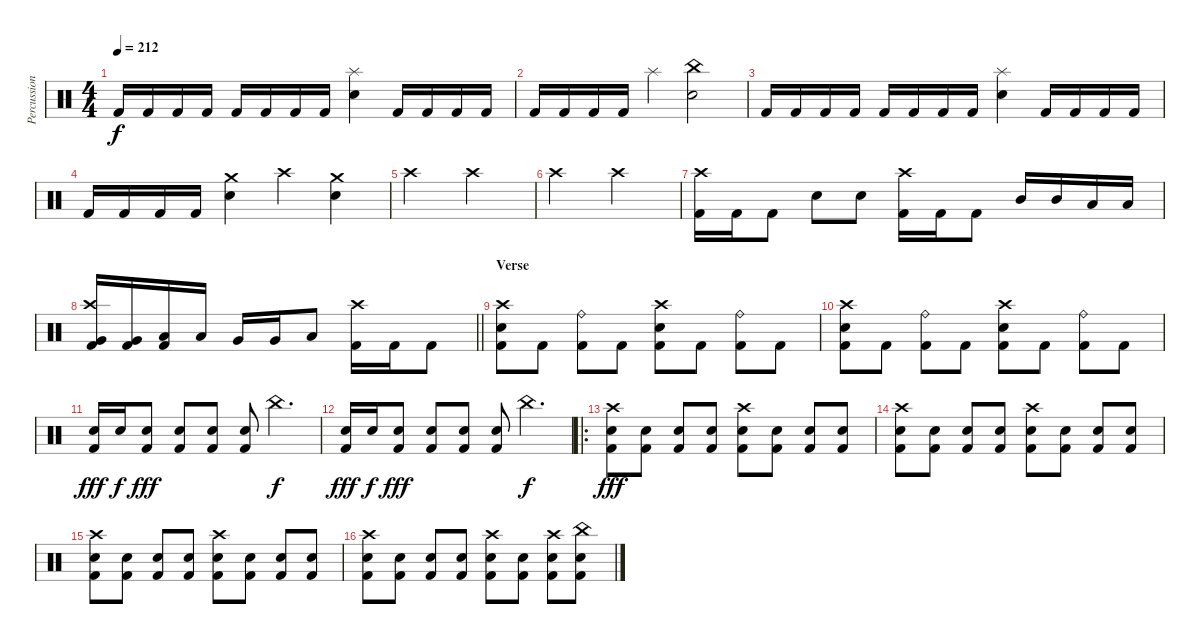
\track ("Percussion" "Percussion") {instrument percussion}
\staff {score}
\articulation defaults
\ts (4 4)
\tempo 212
\clef neutral
\ks c "Kick (hit) 2".16{dy f} "Kick (hit) 2".16 "Kick (hit) 2".16 "Kick (hit) 2".16 "Kick (hit) 2".16 "Kick (hit) 2".16 "Kick (hit) 2".16 "Kick (hit) 2".16
("Splash (hit)" "Electric Snare (hit)").4 "Kick (hit) 2".16 "Kick (hit) 2".16 "Kick (hit) 2".16 "Kick (hit) 2".16 |
"Kick (hit) 2".16 "Kick (hit) 2".16 "Kick (hit) 2".16 "Kick (hit) 2".16 "Splash (hit)".4 ("China (hit)" "Electric Snare (hit)").2 |
"Kick (hit) 2".16 "Kick (hit) 2".16 "Kick (hit) 2".16 "Kick (hit) 2".16 "Kick (hit) 2".16 "Kick (hit) 2".16 "Kick (hit) 2".16 "Kick (hit) 2".16 ("Splash (hit)" "Electric Snare (hit)").4 "Kick (hit) 2".16 "Kick (hit) 2".16 "Kick (hit) 2".16 "Kick (hit) 2".16 |
"Kick (hit) 2".16 "Kick (hit) 2".16 "Kick (hit) 2".16 "Kick (hit) 2".16 ("Crash medium (hit)" "Electric Snare (hit)").4 "Crash high (hit)".4 ("Crash medium (hit)" "Electric Snare (hit)").4 |
"Crash high (hit)".2 "Crash high (hit)".2 |
"Crash high (hit)".2 "Crash high (hit)".2 |
("Crash high (hit)" "Kick (hit) 2").16 "Kick (hit) 2".16 "Kick (hit) 2".8 "Electric Snare (hit)".8 "Electric Snare (hit)".8 ("Crash high (hit)" "Kick (hit) 2").16 "Kick (hit) 2".16 "Kick (hit) 2".8 "Mid Tom (hit)".16 "Mid Tom (hit)".16 "Low Tom (hit)".16 "Low Tom (hit)".16 |
\barLineRight lightlight
("Crash high (hit)" "Very Low Tom (hit)" "Kick (hit) 2").16 ("Very Low Tom (hit)" "Kick (hit) 2").16 ("Low Tom (hit)" "Kick (hit) 2").16 "Low Tom (hit)".16 "Very Low Tom (hit)".16 "Very Low Tom (hit)".16 "Low Floor Tom (hit)".8 ("Crash high (hit)" "Kick (hit) 2").16 "Kick (hit) 2".16 "Kick (hit) 2".8 |
\section ("" "Verse")
("Crash high (hit)" "Electric Snare (hit)" "Kick (hit) 2").8 "Kick (hit) 2".8 ("Ride (bell)" "Kick (hit) 2").8 "Kick (hit) 2".8 ("Crash high (hit)" "Electric Snare (hit)" "Kick (hit) 2").8 "Kick (hit) 2".8 ("Ride (bell)" "Kick (hit) 2").8 "Kick (hit) 2".8 |
("Crash high (hit)" "Electric Snare (hit)" "Kick (hit) 2").8 "Kick (hit) 2".8 ("Ride (bell)" "Kick (hit) 2").8 "Kick (hit) 2".8 ("Crash high (hit)" "Electric Snare (hit)" "Kick (hit) 2").8 "Kick (hit) 2".8 ("Ride (bell)" "Kick (hit) 2").8 "Kick (hit) 2".8 |
("Electric Snare (hit)" "Kick (hit) 2").16{dy fff} "Electric Snare (hit)".16{dy f} ("Electric Snare (hit)" "Kick (hit) 2").8{dy fff} ("Electric Snare (hit)" "Kick (hit) 2").8 ("Electric Snare (hit)" "Kick (hit) 2").8 ("Electric Snare (hit)" "Kick (hit) 2").8 "China (hit)".4{d dy f} |
("Electric Snare (hit)" "Kick (hit) 2").16{dy fff} "Electric Snare (hit)".16{dy f} ("Electric Snare (hit)" "Kick (hit) 2").8{dy fff} ("Electric Snare (hit)" "Kick (hit) 2").8 ("Electric Snare (hit)" "Kick (hit) 2").8 ("Electric Snare (hit)" "Kick (hit) 2").8 "China (hit)".4{d dy f} |
\ro
("Crash high (hit)" "Electric Snare (hit)" "Kick (hit) 2").8{dy fff} ("Electric Snare (hit)" "Kick (hit) 2").8 ("Electric Snare (hit)" "Kick (hit) 2").8 ("Electric Snare (hit)" "Kick (hit) 2").8 ("Crash high (hit)" "Electric Snare (hit)" "Kick (hit) 2").8 ("Electric Snare (hit)" "Kick (hit) 2").8 ("Electric Snare (hit)" "Kick (hit) 2").8 ("Electric Snare (hit)" "Kick (hit) 2").8 |
("Crash high (hit)" "Electric Snare (hit)" "Kick (hit) 2").8 ("Electric Snare (hit)" "Kick (hit) 2").8 ("Electric Snare (hit)" "Kick (hit) 2").8 ("Electric Snare (hit)" "Kick (hit) 2").8 ("Crash high (hit)" "Electric Snare (hit)" "Kick (hit) 2").8 ("Electric Snare (hit)" "Kick (hit) 2").8 ("Electric Snare (hit)" "Kick (hit) 2").8 ("Electric Snare (hit)" "Kick (hit) 2").8 |
("Crash high (hit)" "Electric Snare (hit)" "Kick (hit) 2").8 ("Electric Snare (hit)" "Kick (hit) 2").8 ("Electric Snare (hit)" "Kick (hit) 2").8 ("Electric Snare (hit)" "Kick (hit) 2").8 ("Crash high (hit)" "Electric Snare (hit)" "Kick (hit) 2").8 ("Electric Snare (hit)" "Kick (hit) 2").8 ("Electric Snare (hit)" "Kick (hit) 2").8 ("Electric Snare (hit)" "Kick (hit) 2").8 |
("Crash high (hit)" "Electric Snare (hit)" "Kick (hit) 2").8 ("Electric Snare (hit)" "Kick (hit) 2").8 ("Electric Snare (hit)" "Kick (hit) 2").8 ("Electric Snare (hit)" "Kick (hit) 2").8 ("Crash high (hit)" "Electric Snare (hit)" "Kick (hit) 2").8 ("Electric Snare (hit)" "Kick (hit) 2").8 ("Crash high (hit)" "Electric Snare (hit)" "Kick (hit) 2").8 ("China (hit)" "Electric Snare (hit)" "Kick (hit) 2").8
